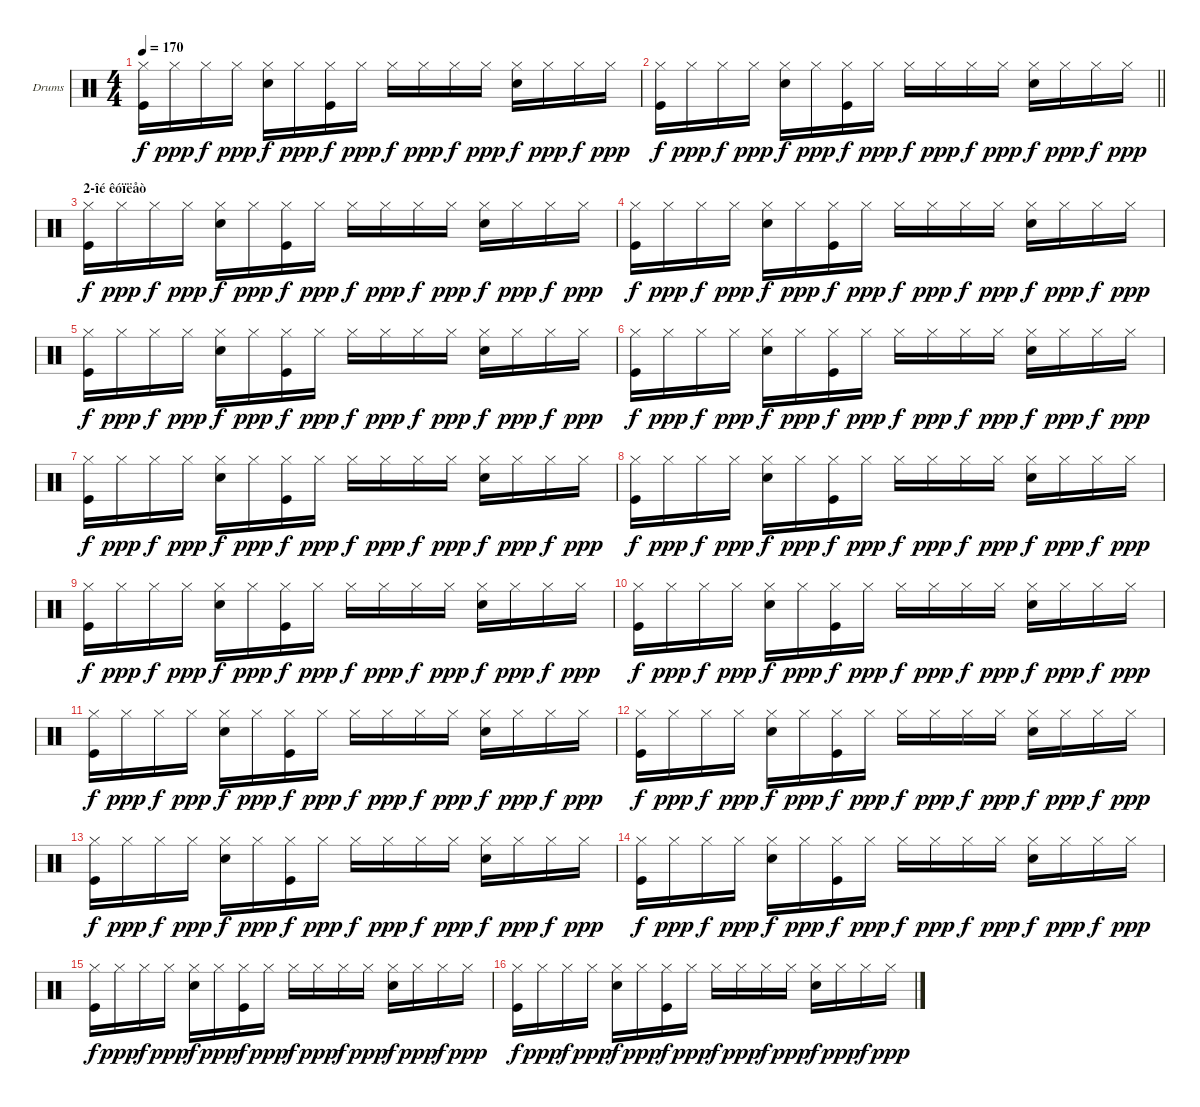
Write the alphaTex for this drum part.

\bracketExtendMode groupsimilarinstruments
\firstSystemTrackNameOrientation horizontal
\otherSystemsTrackNameOrientation horizontal
\track ("Drumkit" "Drums") {instrument percussion}
\staff {score}
\articulation defaults
\ts (4 4)
\tempo 170
\clef neutral
\ks c
("Hi-Hat (closed)" "Kick (hit)").16{dy f} "Hi-Hat (closed)".16{dy ppp} "Hi-Hat (closed)".16{dy f} "Hi-Hat (closed)".16{dy ppp} ("Hi-Hat (closed)" "Snare (hit) 2").16{dy f} "Hi-Hat (closed)".16{dy ppp} ("Hi-Hat (closed)" "Kick (hit)").16{dy f} "Hi-Hat (closed)".16{dy ppp} "Hi-Hat (closed)".16{dy f} "Hi-Hat (closed)".16{dy ppp} "Hi-Hat (closed)".16{dy f} "Hi-Hat (closed)".16{dy ppp} ("Hi-Hat (closed)" "Snare (hit) 2").16{dy f} "Hi-Hat (closed)".16{dy ppp} "Hi-Hat (closed)".16{dy f} "Hi-Hat (closed)".16{dy ppp} |
\barLineRight lightlight
("Hi-Hat (closed)" "Kick (hit)").16{dy f} "Hi-Hat (closed)".16{dy ppp} "Hi-Hat (closed)".16{dy f} "Hi-Hat (closed)".16{dy ppp} ("Hi-Hat (closed)" "Snare (hit) 2").16{dy f} "Hi-Hat (closed)".16{dy ppp} ("Hi-Hat (closed)" "Kick (hit)").16{dy f} "Hi-Hat (closed)".16{dy ppp} "Hi-Hat (closed)".16{dy f} "Hi-Hat (closed)".16{dy ppp} "Hi-Hat (closed)".16{dy f} "Hi-Hat (closed)".16{dy ppp} ("Hi-Hat (closed)" "Snare (hit) 2").16{dy f} "Hi-Hat (closed)".16{dy ppp} "Hi-Hat (closed)".16{dy f} "Hi-Hat (closed)".16{dy ppp} |
\section ("" "2-îé êóïëåò")
("Hi-Hat (closed)" "Kick (hit)").16{dy f} "Hi-Hat (closed)".16{dy ppp} "Hi-Hat (closed)".16{dy f} "Hi-Hat (closed)".16{dy ppp} ("Hi-Hat (closed)" "Snare (hit) 2").16{dy f} "Hi-Hat (closed)".16{dy ppp} ("Hi-Hat (closed)" "Kick (hit)").16{dy f} "Hi-Hat (closed)".16{dy ppp} "Hi-Hat (closed)".16{dy f} "Hi-Hat (closed)".16{dy ppp} "Hi-Hat (closed)".16{dy f} "Hi-Hat (closed)".16{dy ppp} ("Hi-Hat (closed)" "Snare (hit) 2").16{dy f} "Hi-Hat (closed)".16{dy ppp} "Hi-Hat (closed)".16{dy f} "Hi-Hat (closed)".16{dy ppp} |
("Hi-Hat (closed)" "Kick (hit)").16{dy f} "Hi-Hat (closed)".16{dy ppp} "Hi-Hat (closed)".16{dy f} "Hi-Hat (closed)".16{dy ppp} ("Hi-Hat (closed)" "Snare (hit) 2").16{dy f} "Hi-Hat (closed)".16{dy ppp} ("Hi-Hat (closed)" "Kick (hit)").16{dy f} "Hi-Hat (closed)".16{dy ppp} "Hi-Hat (closed)".16{dy f} "Hi-Hat (closed)".16{dy ppp} "Hi-Hat (closed)".16{dy f} "Hi-Hat (closed)".16{dy ppp} ("Hi-Hat (closed)" "Snare (hit) 2").16{dy f} "Hi-Hat (closed)".16{dy ppp} "Hi-Hat (closed)".16{dy f} "Hi-Hat (closed)".16{dy ppp} |
("Hi-Hat (closed)" "Kick (hit)").16{dy f} "Hi-Hat (closed)".16{dy ppp} "Hi-Hat (closed)".16{dy f} "Hi-Hat (closed)".16{dy ppp} ("Hi-Hat (closed)" "Snare (hit) 2").16{dy f} "Hi-Hat (closed)".16{dy ppp} ("Hi-Hat (closed)" "Kick (hit)").16{dy f} "Hi-Hat (closed)".16{dy ppp} "Hi-Hat (closed)".16{dy f} "Hi-Hat (closed)".16{dy ppp} "Hi-Hat (closed)".16{dy f} "Hi-Hat (closed)".16{dy ppp} ("Hi-Hat (closed)" "Snare (hit) 2").16{dy f} "Hi-Hat (closed)".16{dy ppp} "Hi-Hat (closed)".16{dy f} "Hi-Hat (closed)".16{dy ppp} |
("Hi-Hat (closed)" "Kick (hit)").16{dy f} "Hi-Hat (closed)".16{dy ppp} "Hi-Hat (closed)".16{dy f} "Hi-Hat (closed)".16{dy ppp} ("Hi-Hat (closed)" "Snare (hit) 2").16{dy f} "Hi-Hat (closed)".16{dy ppp} ("Hi-Hat (closed)" "Kick (hit)").16{dy f} "Hi-Hat (closed)".16{dy ppp} "Hi-Hat (closed)".16{dy f} "Hi-Hat (closed)".16{dy ppp} "Hi-Hat (closed)".16{dy f} "Hi-Hat (closed)".16{dy ppp} ("Hi-Hat (closed)" "Snare (hit) 2").16{dy f} "Hi-Hat (closed)".16{dy ppp} "Hi-Hat (closed)".16{dy f} "Hi-Hat (closed)".16{dy ppp} |
("Hi-Hat (closed)" "Kick (hit)").16{dy f} "Hi-Hat (closed)".16{dy ppp} "Hi-Hat (closed)".16{dy f} "Hi-Hat (closed)".16{dy ppp} ("Hi-Hat (closed)" "Snare (hit) 2").16{dy f} "Hi-Hat (closed)".16{dy ppp} ("Hi-Hat (closed)" "Kick (hit)").16{dy f} "Hi-Hat (closed)".16{dy ppp} "Hi-Hat (closed)".16{dy f} "Hi-Hat (closed)".16{dy ppp} "Hi-Hat (closed)".16{dy f} "Hi-Hat (closed)".16{dy ppp} ("Hi-Hat (closed)" "Snare (hit) 2").16{dy f} "Hi-Hat (closed)".16{dy ppp} "Hi-Hat (closed)".16{dy f} "Hi-Hat (closed)".16{dy ppp} |
("Hi-Hat (closed)" "Kick (hit)").16{dy f} "Hi-Hat (closed)".16{dy ppp} "Hi-Hat (closed)".16{dy f} "Hi-Hat (closed)".16{dy ppp} ("Hi-Hat (closed)" "Snare (hit) 2").16{dy f} "Hi-Hat (closed)".16{dy ppp} ("Hi-Hat (closed)" "Kick (hit)").16{dy f} "Hi-Hat (closed)".16{dy ppp} "Hi-Hat (closed)".16{dy f} "Hi-Hat (closed)".16{dy ppp} "Hi-Hat (closed)".16{dy f} "Hi-Hat (closed)".16{dy ppp} ("Hi-Hat (closed)" "Snare (hit) 2").16{dy f} "Hi-Hat (closed)".16{dy ppp} "Hi-Hat (closed)".16{dy f} "Hi-Hat (closed)".16{dy ppp} |
("Hi-Hat (closed)" "Kick (hit)").16{dy f} "Hi-Hat (closed)".16{dy ppp} "Hi-Hat (closed)".16{dy f} "Hi-Hat (closed)".16{dy ppp} ("Hi-Hat (closed)" "Snare (hit) 2").16{dy f} "Hi-Hat (closed)".16{dy ppp} ("Hi-Hat (closed)" "Kick (hit)").16{dy f} "Hi-Hat (closed)".16{dy ppp} "Hi-Hat (closed)".16{dy f} "Hi-Hat (closed)".16{dy ppp} "Hi-Hat (closed)".16{dy f} "Hi-Hat (closed)".16{dy ppp} ("Hi-Hat (closed)" "Snare (hit) 2").16{dy f} "Hi-Hat (closed)".16{dy ppp} "Hi-Hat (closed)".16{dy f} "Hi-Hat (closed)".16{dy ppp} |
("Hi-Hat (closed)" "Kick (hit)").16{dy f} "Hi-Hat (closed)".16{dy ppp} "Hi-Hat (closed)".16{dy f} "Hi-Hat (closed)".16{dy ppp} ("Hi-Hat (closed)" "Snare (hit) 2").16{dy f} "Hi-Hat (closed)".16{dy ppp} ("Hi-Hat (closed)" "Kick (hit)").16{dy f} "Hi-Hat (closed)".16{dy ppp} "Hi-Hat (closed)".16{dy f} "Hi-Hat (closed)".16{dy ppp} "Hi-Hat (closed)".16{dy f} "Hi-Hat (closed)".16{dy ppp} ("Hi-Hat (closed)" "Snare (hit) 2").16{dy f} "Hi-Hat (closed)".16{dy ppp} "Hi-Hat (closed)".16{dy f} "Hi-Hat (closed)".16{dy ppp} |
("Hi-Hat (closed)" "Kick (hit)").16{dy f} "Hi-Hat (closed)".16{dy ppp} "Hi-Hat (closed)".16{dy f} "Hi-Hat (closed)".16{dy ppp} ("Hi-Hat (closed)" "Snare (hit) 2").16{dy f} "Hi-Hat (closed)".16{dy ppp} ("Hi-Hat (closed)" "Kick (hit)").16{dy f} "Hi-Hat (closed)".16{dy ppp} "Hi-Hat (closed)".16{dy f} "Hi-Hat (closed)".16{dy ppp} "Hi-Hat (closed)".16{dy f} "Hi-Hat (closed)".16{dy ppp} ("Hi-Hat (closed)" "Snare (hit) 2").16{dy f} "Hi-Hat (closed)".16{dy ppp} "Hi-Hat (closed)".16{dy f} "Hi-Hat (closed)".16{dy ppp} |
("Hi-Hat (closed)" "Kick (hit)").16{dy f} "Hi-Hat (closed)".16{dy ppp} "Hi-Hat (closed)".16{dy f} "Hi-Hat (closed)".16{dy ppp} ("Hi-Hat (closed)" "Snare (hit) 2").16{dy f} "Hi-Hat (closed)".16{dy ppp} ("Hi-Hat (closed)" "Kick (hit)").16{dy f} "Hi-Hat (closed)".16{dy ppp} "Hi-Hat (closed)".16{dy f} "Hi-Hat (closed)".16{dy ppp} "Hi-Hat (closed)".16{dy f} "Hi-Hat (closed)".16{dy ppp} ("Hi-Hat (closed)" "Snare (hit) 2").16{dy f} "Hi-Hat (closed)".16{dy ppp} "Hi-Hat (closed)".16{dy f} "Hi-Hat (closed)".16{dy ppp} |
("Hi-Hat (closed)" "Kick (hit)").16{dy f} "Hi-Hat (closed)".16{dy ppp} "Hi-Hat (closed)".16{dy f} "Hi-Hat (closed)".16{dy ppp} ("Hi-Hat (closed)" "Snare (hit) 2").16{dy f} "Hi-Hat (closed)".16{dy ppp} ("Hi-Hat (closed)" "Kick (hit)").16{dy f} "Hi-Hat (closed)".16{dy ppp} "Hi-Hat (closed)".16{dy f} "Hi-Hat (closed)".16{dy ppp} "Hi-Hat (closed)".16{dy f} "Hi-Hat (closed)".16{dy ppp} ("Hi-Hat (closed)" "Snare (hit) 2").16{dy f} "Hi-Hat (closed)".16{dy ppp} "Hi-Hat (closed)".16{dy f} "Hi-Hat (closed)".16{dy ppp} |
("Hi-Hat (closed)" "Kick (hit)").16{dy f} "Hi-Hat (closed)".16{dy ppp} "Hi-Hat (closed)".16{dy f} "Hi-Hat (closed)".16{dy ppp} ("Hi-Hat (closed)" "Snare (hit) 2").16{dy f} "Hi-Hat (closed)".16{dy ppp} ("Hi-Hat (closed)" "Kick (hit)").16{dy f} "Hi-Hat (closed)".16{dy ppp} "Hi-Hat (closed)".16{dy f} "Hi-Hat (closed)".16{dy ppp} "Hi-Hat (closed)".16{dy f} "Hi-Hat (closed)".16{dy ppp} ("Hi-Hat (closed)" "Snare (hit) 2").16{dy f} "Hi-Hat (closed)".16{dy ppp} "Hi-Hat (closed)".16{dy f} "Hi-Hat (closed)".16{dy ppp} |
("Hi-Hat (closed)" "Kick (hit)").16{dy f} "Hi-Hat (closed)".16{dy ppp} "Hi-Hat (closed)".16{dy f} "Hi-Hat (closed)".16{dy ppp} ("Hi-Hat (closed)" "Snare (hit) 2").16{dy f} "Hi-Hat (closed)".16{dy ppp} ("Hi-Hat (closed)" "Kick (hit)").16{dy f} "Hi-Hat (closed)".16{dy ppp} "Hi-Hat (closed)".16{dy f} "Hi-Hat (closed)".16{dy ppp} "Hi-Hat (closed)".16{dy f} "Hi-Hat (closed)".16{dy ppp} ("Hi-Hat (closed)" "Snare (hit) 2").16{dy f} "Hi-Hat (closed)".16{dy ppp} "Hi-Hat (closed)".16{dy f} "Hi-Hat (closed)".16{dy ppp} |
("Hi-Hat (closed)" "Kick (hit)").16{dy f} "Hi-Hat (closed)".16{dy ppp} "Hi-Hat (closed)".16{dy f} "Hi-Hat (closed)".16{dy ppp} ("Hi-Hat (closed)" "Snare (hit) 2").16{dy f} "Hi-Hat (closed)".16{dy ppp} ("Hi-Hat (closed)" "Kick (hit)").16{dy f} "Hi-Hat (closed)".16{dy ppp} "Hi-Hat (closed)".16{dy f} "Hi-Hat (closed)".16{dy ppp} "Hi-Hat (closed)".16{dy f} "Hi-Hat (closed)".16{dy ppp} ("Hi-Hat (closed)" "Snare (hit) 2").16{dy f} "Hi-Hat (closed)".16{dy ppp} "Hi-Hat (closed)".16{dy f} "Hi-Hat (closed)".16{dy ppp}
